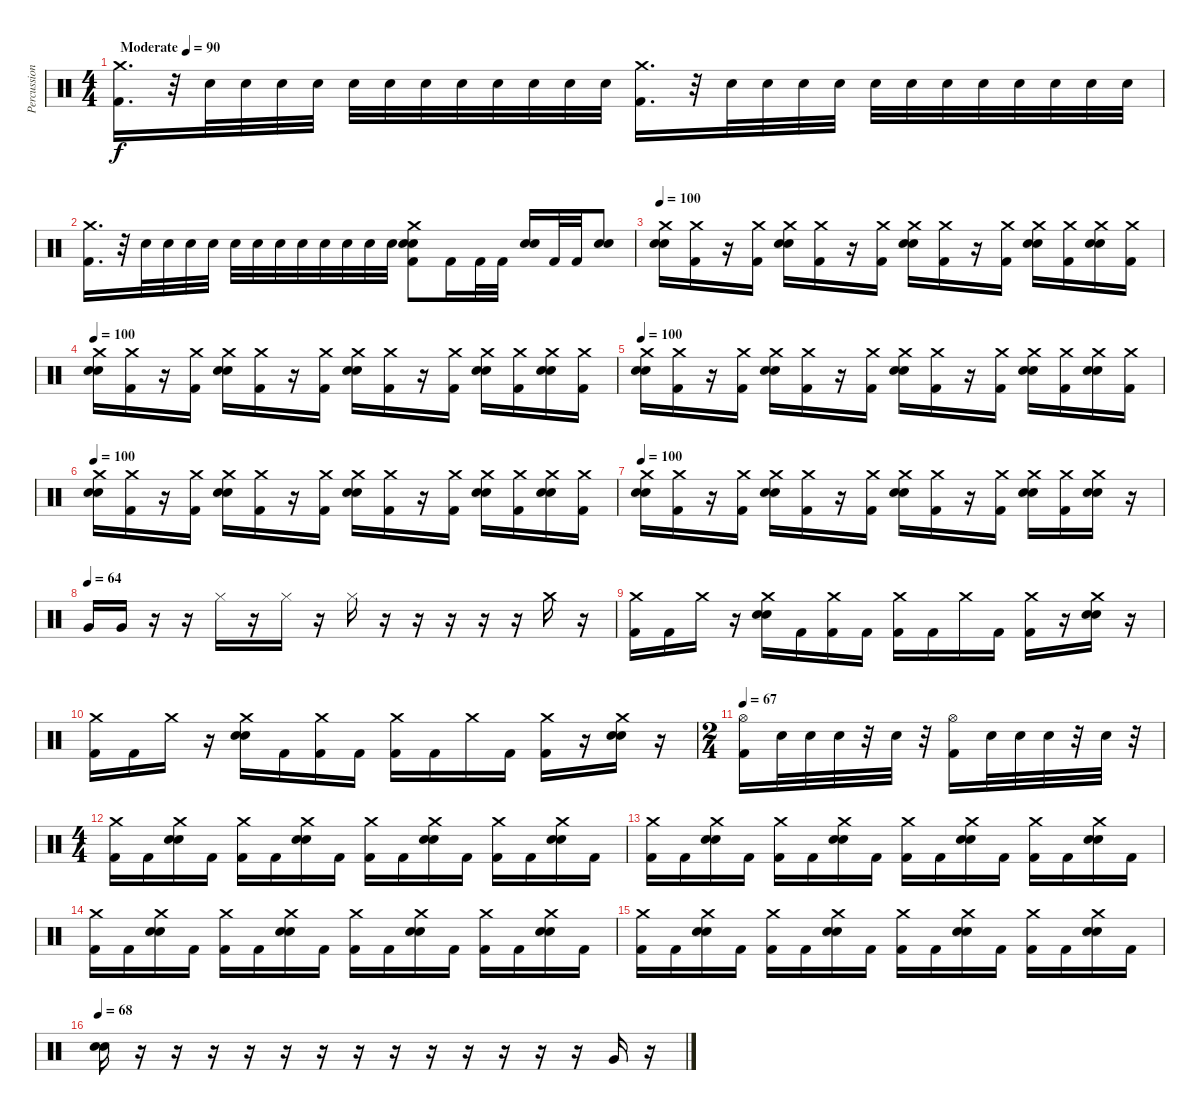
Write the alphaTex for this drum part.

\track ("Percussion" "Percussion") {instrument percussion}
\staff {score}
\articulation defaults
\ts (4 4)
\tempo (90 "Moderate")
\clef neutral
\ks c
("Crash medium (hit)" "Kick (hit) 2").16{d dy f} r.32 "Electric Snare (hit)".32 "Electric Snare (hit)".32 "Electric Snare (hit)".32 "Electric Snare (hit)".32 "Electric Snare (hit)".32 "Electric Snare (hit)".32 "Electric Snare (hit)".32 "Electric Snare (hit)".32 "Electric Snare (hit)".32 "Electric Snare (hit)".32 "Electric Snare (hit)".32 "Electric Snare (hit)".32 ("Crash medium (hit)" "Kick (hit) 2").16{d} r.32 "Electric Snare (hit)".32 "Electric Snare (hit)".32 "Electric Snare (hit)".32 "Electric Snare (hit)".32 "Electric Snare (hit)".32 "Electric Snare (hit)".32 "Electric Snare (hit)".32 "Electric Snare (hit)".32 "Electric Snare (hit)".32 "Electric Snare (hit)".32 "Electric Snare (hit)".32 "Electric Snare (hit)".32 |
("Crash medium (hit)" "Kick (hit) 2").16{d} r.32 "Electric Snare (hit)".32 "Electric Snare (hit)".32 "Electric Snare (hit)".32 "Electric Snare (hit)".32 "Electric Snare (hit)".32 "Electric Snare (hit)".32 "Electric Snare (hit)".32 "Electric Snare (hit)".32 "Electric Snare (hit)".32 "Electric Snare (hit)".32 "Electric Snare (hit)".32 "Electric Snare (hit)".32 ("Crash medium (hit)" "Electric Snare (hit)" "Electric Snare (hit)" "Kick (hit) 2").8 "Kick (hit) 2".16 "Kick (hit) 2".32 "Kick (hit) 2".32 ("Electric Snare (hit)" "Electric Snare (hit)").16 "Kick (hit) 2".32 "Kick (hit) 2".32 ("Electric Snare (hit)" "Electric Snare (hit)").8 |
\tempo 100
("Crash medium (hit)" "Electric Snare (hit)" "Electric Snare (hit)").16 ("Crash medium (hit)" "Kick (hit) 2").16 r.16 ("Crash medium (hit)" "Kick (hit) 2").16 ("Crash medium (hit)" "Electric Snare (hit)" "Electric Snare (hit)").16 ("Crash medium (hit)" "Kick (hit) 2").16 r.16 ("Crash medium (hit)" "Kick (hit) 2").16 ("Crash medium (hit)" "Electric Snare (hit)" "Electric Snare (hit)").16 ("Crash medium (hit)" "Kick (hit) 2").16 r.16 ("Crash medium (hit)" "Kick (hit) 2").16 ("Crash medium (hit)" "Electric Snare (hit)" "Electric Snare (hit)").16 ("Crash medium (hit)" "Kick (hit) 2").16 ("Crash medium (hit)" "Electric Snare (hit)" "Electric Snare (hit)").16 ("Crash medium (hit)" "Kick (hit) 2").16 |
\tempo 100
("Crash medium (hit)" "Electric Snare (hit)" "Electric Snare (hit)").16 ("Crash medium (hit)" "Kick (hit) 2").16 r.16 ("Crash medium (hit)" "Kick (hit) 2").16 ("Crash medium (hit)" "Electric Snare (hit)" "Electric Snare (hit)").16 ("Crash medium (hit)" "Kick (hit) 2").16 r.16 ("Crash medium (hit)" "Kick (hit) 2").16 ("Crash medium (hit)" "Electric Snare (hit)" "Electric Snare (hit)").16 ("Crash medium (hit)" "Kick (hit) 2").16 r.16 ("Crash medium (hit)" "Kick (hit) 2").16 ("Crash medium (hit)" "Electric Snare (hit)" "Electric Snare (hit)").16 ("Crash medium (hit)" "Kick (hit) 2").16 ("Crash medium (hit)" "Electric Snare (hit)" "Electric Snare (hit)").16 ("Crash medium (hit)" "Kick (hit) 2").16 |
\tempo 100
("Crash medium (hit)" "Electric Snare (hit)" "Electric Snare (hit)").16 ("Crash medium (hit)" "Kick (hit) 2").16 r.16 ("Crash medium (hit)" "Kick (hit) 2").16 ("Crash medium (hit)" "Electric Snare (hit)" "Electric Snare (hit)").16 ("Crash medium (hit)" "Kick (hit) 2").16 r.16 ("Crash medium (hit)" "Kick (hit) 2").16 ("Crash medium (hit)" "Electric Snare (hit)" "Electric Snare (hit)").16 ("Crash medium (hit)" "Kick (hit) 2").16 r.16 ("Crash medium (hit)" "Kick (hit) 2").16 ("Crash medium (hit)" "Electric Snare (hit)" "Electric Snare (hit)").16 ("Crash medium (hit)" "Kick (hit) 2").16 ("Crash medium (hit)" "Electric Snare (hit)" "Electric Snare (hit)").16 ("Crash medium (hit)" "Kick (hit) 2").16 |
\tempo 100
("Crash medium (hit)" "Electric Snare (hit)" "Electric Snare (hit)").16 ("Crash medium (hit)" "Kick (hit) 2").16 r.16 ("Crash medium (hit)" "Kick (hit) 2").16 ("Crash medium (hit)" "Electric Snare (hit)" "Electric Snare (hit)").16 ("Crash medium (hit)" "Kick (hit) 2").16 r.16 ("Crash medium (hit)" "Kick (hit) 2").16 ("Crash medium (hit)" "Electric Snare (hit)" "Electric Snare (hit)").16 ("Crash medium (hit)" "Kick (hit) 2").16 r.16 ("Crash medium (hit)" "Kick (hit) 2").16 ("Crash medium (hit)" "Electric Snare (hit)" "Electric Snare (hit)").16 ("Crash medium (hit)" "Kick (hit) 2").16 ("Crash medium (hit)" "Electric Snare (hit)" "Electric Snare (hit)").16 ("Crash medium (hit)" "Kick (hit) 2").16 |
\tempo 100
("Crash medium (hit)" "Electric Snare (hit)" "Electric Snare (hit)").16 ("Crash medium (hit)" "Kick (hit) 2").16 r.16 ("Crash medium (hit)" "Kick (hit) 2").16 ("Crash medium (hit)" "Electric Snare (hit)" "Electric Snare (hit)").16 ("Crash medium (hit)" "Kick (hit) 2").16 r.16 ("Crash medium (hit)" "Kick (hit) 2").16 ("Crash medium (hit)" "Electric Snare (hit)" "Electric Snare (hit)").16 ("Crash medium (hit)" "Kick (hit) 2").16 r.16 ("Crash medium (hit)" "Kick (hit) 2").16 ("Crash medium (hit)" "Electric Snare (hit)" "Electric Snare (hit)").16 ("Crash medium (hit)" "Kick (hit) 2").16 ("Crash medium (hit)" "Electric Snare (hit)" "Electric Snare (hit)").16 r.16 |
\tempo (64)
"Very Low Tom (hit)".16 "Very Low Tom (hit)".16 r.16 r.16 "Hi-Hat (closed)".16 r.16 "Hi-Hat (closed)".16 r.16 "Hi-Hat (closed)".16 r.16 r.16 r.16 r.16 r.16 "Crash medium (hit)".16 r.16 |
("Crash medium (hit)" "Kick (hit) 2").16 "Kick (hit) 2".16 "Crash medium (hit)".16 r.16 ("Crash medium (hit)" "Electric Snare (hit)" "Electric Snare (hit)").16 "Kick (hit) 2".16 ("Crash medium (hit)" "Kick (hit) 2").16 "Kick (hit) 2".16 ("Crash medium (hit)" "Kick (hit) 2").16 "Kick (hit) 2".16 "Crash medium (hit)".16 "Kick (hit) 2".16 ("Crash medium (hit)" "Kick (hit) 2").16 r.16 ("Crash medium (hit)" "Electric Snare (hit)" "Electric Snare (hit)").16 r.16 |
("Crash medium (hit)" "Kick (hit) 2").16 "Kick (hit) 2".16 "Crash medium (hit)".16 r.16 ("Crash medium (hit)" "Electric Snare (hit)" "Electric Snare (hit)").16 "Kick (hit) 2".16 ("Crash medium (hit)" "Kick (hit) 2").16 "Kick (hit) 2".16 ("Crash medium (hit)" "Kick (hit) 2").16 "Kick (hit) 2".16 "Crash medium (hit)".16 "Kick (hit) 2".16 ("Crash medium (hit)" "Kick (hit) 2").16 r.16 ("Crash medium (hit)" "Electric Snare (hit)" "Electric Snare (hit)").16 r.16 |
\ts (2 4)
\tempo 67
("Hi-Hat (open)" "Kick (hit) 2").16 "Electric Snare (hit)".32 "Electric Snare (hit)".32 "Electric Snare (hit)".32 r.32 "Electric Snare (hit)".32 r.32 ("Hi-Hat (open)" "Kick (hit) 2").16 "Electric Snare (hit)".32 "Electric Snare (hit)".32 "Electric Snare (hit)".32 r.32 "Electric Snare (hit)".32 r.32 |
\ts (4 4)
("Crash medium (hit)" "Kick (hit) 2").16 "Kick (hit) 2".16 ("Crash medium (hit)" "Electric Snare (hit)" "Electric Snare (hit)").16 "Kick (hit) 2".16 ("Crash medium (hit)" "Kick (hit) 2").16 "Kick (hit) 2".16 ("Crash medium (hit)" "Electric Snare (hit)" "Electric Snare (hit)").16 "Kick (hit) 2".16 ("Crash medium (hit)" "Kick (hit) 2").16 "Kick (hit) 2".16 ("Crash medium (hit)" "Electric Snare (hit)" "Electric Snare (hit)").16 "Kick (hit) 2".16 ("Crash medium (hit)" "Kick (hit) 2").16 "Kick (hit) 2".16 ("Crash medium (hit)" "Electric Snare (hit)" "Electric Snare (hit)").16 "Kick (hit) 2".16 |
("Crash medium (hit)" "Kick (hit) 2").16 "Kick (hit) 2".16 ("Crash medium (hit)" "Electric Snare (hit)" "Electric Snare (hit)").16 "Kick (hit) 2".16 ("Crash medium (hit)" "Kick (hit) 2").16 "Kick (hit) 2".16 ("Crash medium (hit)" "Electric Snare (hit)" "Electric Snare (hit)").16 "Kick (hit) 2".16 ("Crash medium (hit)" "Kick (hit) 2").16 "Kick (hit) 2".16 ("Crash medium (hit)" "Electric Snare (hit)" "Electric Snare (hit)").16 "Kick (hit) 2".16 ("Crash medium (hit)" "Kick (hit) 2").16 "Kick (hit) 2".16 ("Crash medium (hit)" "Electric Snare (hit)" "Electric Snare (hit)").16 "Kick (hit) 2".16 |
("Crash medium (hit)" "Kick (hit) 2").16 "Kick (hit) 2".16 ("Crash medium (hit)" "Electric Snare (hit)" "Electric Snare (hit)").16 "Kick (hit) 2".16 ("Crash medium (hit)" "Kick (hit) 2").16 "Kick (hit) 2".16 ("Crash medium (hit)" "Electric Snare (hit)" "Electric Snare (hit)").16 "Kick (hit) 2".16 ("Crash medium (hit)" "Kick (hit) 2").16 "Kick (hit) 2".16 ("Crash medium (hit)" "Electric Snare (hit)" "Electric Snare (hit)").16 "Kick (hit) 2".16 ("Crash medium (hit)" "Kick (hit) 2").16 "Kick (hit) 2".16 ("Crash medium (hit)" "Electric Snare (hit)" "Electric Snare (hit)").16 "Kick (hit) 2".16 |
("Crash medium (hit)" "Kick (hit) 2").16 "Kick (hit) 2".16 ("Crash medium (hit)" "Electric Snare (hit)" "Electric Snare (hit)").16 "Kick (hit) 2".16 ("Crash medium (hit)" "Kick (hit) 2").16 "Kick (hit) 2".16 ("Crash medium (hit)" "Electric Snare (hit)" "Electric Snare (hit)").16 "Kick (hit) 2".16 ("Crash medium (hit)" "Kick (hit) 2").16 "Kick (hit) 2".16 ("Crash medium (hit)" "Electric Snare (hit)" "Electric Snare (hit)").16 "Kick (hit) 2".16 ("Crash medium (hit)" "Kick (hit) 2").16 "Kick (hit) 2".16 ("Crash medium (hit)" "Electric Snare (hit)" "Electric Snare (hit)").16 "Kick (hit) 2".16 |
\tempo 68
("Electric Snare (hit)" "Electric Snare (hit)").16 r.16 r.16 r.16 r.16 r.16 r.16 r.16 r.16 r.16 r.16 r.16 r.16 r.16 "Very Low Tom (hit)".16 r.16
